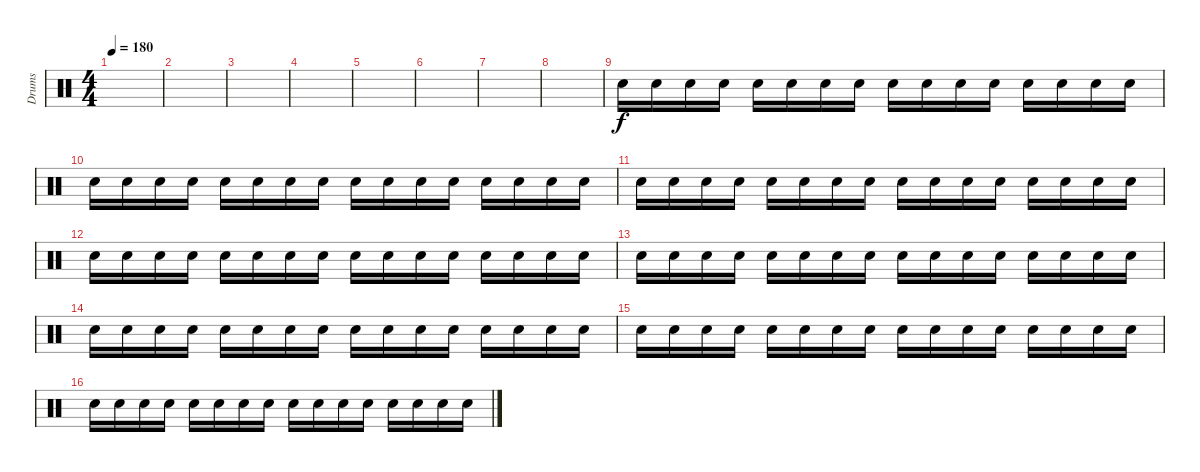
\track ("Drums" "Drums") {instrument percussion}
\staff {score}
\articulation defaults
\ts (4 4)
\tempo 180
\clef neutral
\ks c
|
|
|
|
|
|
|
|
"Snare (hit) 2".16 "Snare (hit) 2".16 "Snare (hit) 2".16 "Snare (hit) 2".16 "Snare (hit) 2".16 "Snare (hit) 2".16 "Snare (hit) 2".16 "Snare (hit) 2".16 "Snare (hit) 2".16 "Snare (hit) 2".16 "Snare (hit) 2".16 "Snare (hit) 2".16 "Snare (hit) 2".16 "Snare (hit) 2".16 "Snare (hit) 2".16 "Snare (hit) 2".16 |
"Snare (hit) 2".16 "Snare (hit) 2".16 "Snare (hit) 2".16 "Snare (hit) 2".16 "Snare (hit) 2".16 "Snare (hit) 2".16 "Snare (hit) 2".16 "Snare (hit) 2".16 "Snare (hit) 2".16 "Snare (hit) 2".16 "Snare (hit) 2".16 "Snare (hit) 2".16 "Snare (hit) 2".16 "Snare (hit) 2".16 "Snare (hit) 2".16 "Snare (hit) 2".16 |
"Snare (hit) 2".16 "Snare (hit) 2".16 "Snare (hit) 2".16 "Snare (hit) 2".16 "Snare (hit) 2".16 "Snare (hit) 2".16 "Snare (hit) 2".16 "Snare (hit) 2".16 "Snare (hit) 2".16 "Snare (hit) 2".16 "Snare (hit) 2".16 "Snare (hit) 2".16 "Snare (hit) 2".16 "Snare (hit) 2".16 "Snare (hit) 2".16 "Snare (hit) 2".16 |
"Snare (hit) 2".16 "Snare (hit) 2".16 "Snare (hit) 2".16 "Snare (hit) 2".16 "Snare (hit) 2".16 "Snare (hit) 2".16 "Snare (hit) 2".16 "Snare (hit) 2".16 "Snare (hit) 2".16 "Snare (hit) 2".16 "Snare (hit) 2".16 "Snare (hit) 2".16 "Snare (hit) 2".16 "Snare (hit) 2".16 "Snare (hit) 2".16 "Snare (hit) 2".16 |
"Snare (hit) 2".16 "Snare (hit) 2".16 "Snare (hit) 2".16 "Snare (hit) 2".16 "Snare (hit) 2".16 "Snare (hit) 2".16 "Snare (hit) 2".16 "Snare (hit) 2".16 "Snare (hit) 2".16 "Snare (hit) 2".16 "Snare (hit) 2".16 "Snare (hit) 2".16 "Snare (hit) 2".16 "Snare (hit) 2".16 "Snare (hit) 2".16 "Snare (hit) 2".16 |
"Snare (hit) 2".16 "Snare (hit) 2".16 "Snare (hit) 2".16 "Snare (hit) 2".16 "Snare (hit) 2".16 "Snare (hit) 2".16 "Snare (hit) 2".16 "Snare (hit) 2".16 "Snare (hit) 2".16 "Snare (hit) 2".16 "Snare (hit) 2".16 "Snare (hit) 2".16 "Snare (hit) 2".16 "Snare (hit) 2".16 "Snare (hit) 2".16 "Snare (hit) 2".16 |
"Snare (hit) 2".16 "Snare (hit) 2".16 "Snare (hit) 2".16 "Snare (hit) 2".16 "Snare (hit) 2".16 "Snare (hit) 2".16 "Snare (hit) 2".16 "Snare (hit) 2".16 "Snare (hit) 2".16 "Snare (hit) 2".16 "Snare (hit) 2".16 "Snare (hit) 2".16 "Snare (hit) 2".16 "Snare (hit) 2".16 "Snare (hit) 2".16 "Snare (hit) 2".16 |
"Snare (hit) 2".16 "Snare (hit) 2".16 "Snare (hit) 2".16 "Snare (hit) 2".16 "Snare (hit) 2".16 "Snare (hit) 2".16 "Snare (hit) 2".16 "Snare (hit) 2".16 "Snare (hit) 2".16 "Snare (hit) 2".16 "Snare (hit) 2".16 "Snare (hit) 2".16 "Snare (hit) 2".16 "Snare (hit) 2".16 "Snare (hit) 2".16 "Snare (hit) 2".16
